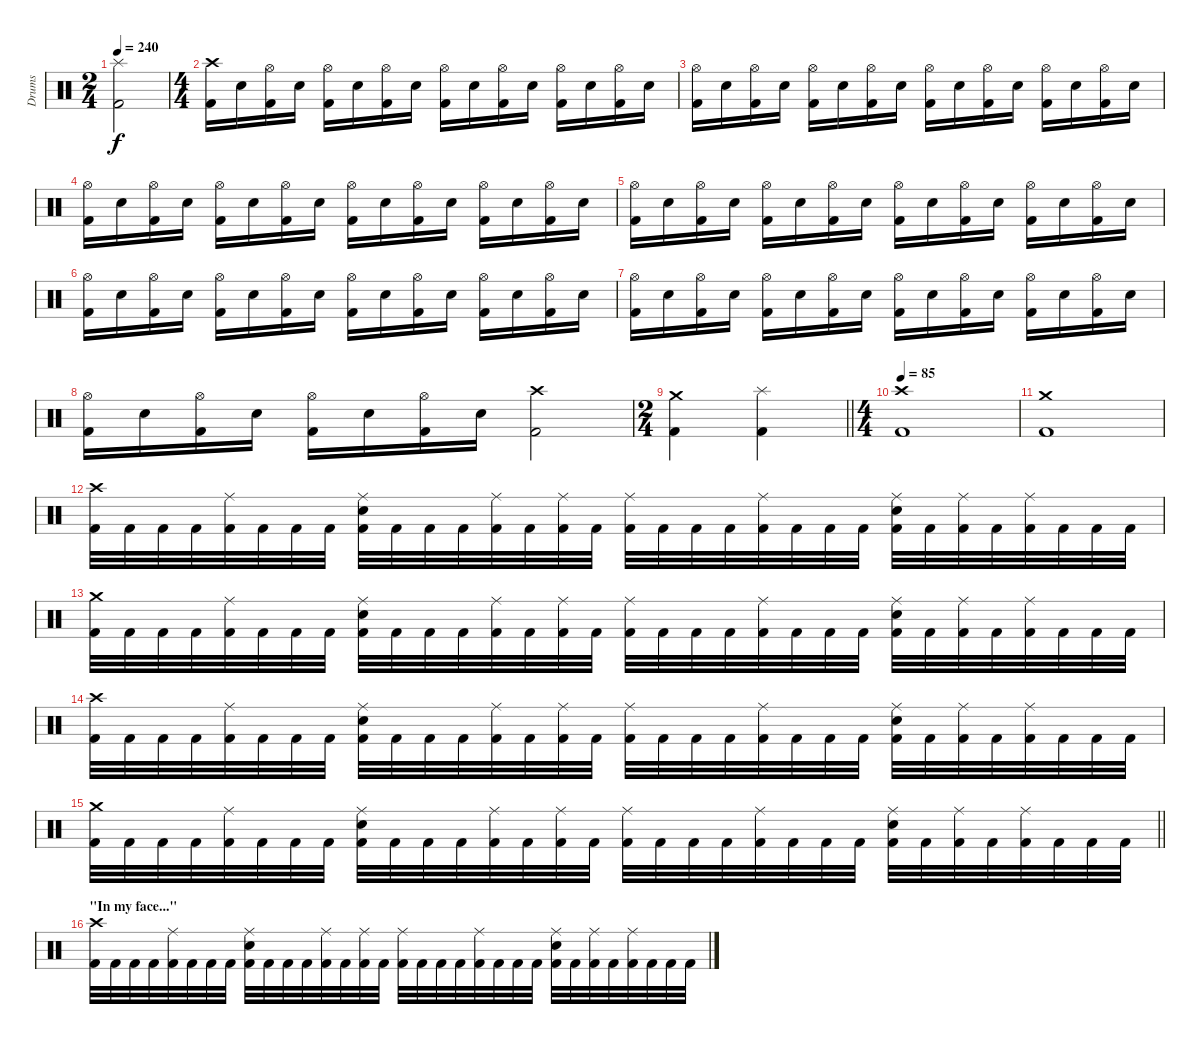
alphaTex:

\track ("Drums" "Drums") {instrument percussion}
\staff {score}
\articulation defaults
\ts (2 4)
\tempo 240
\clef neutral
\ks c
("Splash (hit)" "Kick (hit) 2").2{dy f} |
\ts (4 4)
("Crash high (hit)" "Kick (hit) 2").16 "Electric Snare (hit)".16 ("Hi-Hat (open)" "Kick (hit) 2").16 "Electric Snare (hit)".16 ("Hi-Hat (open)" "Kick (hit) 2").16 "Electric Snare (hit)".16 ("Hi-Hat (open)" "Kick (hit) 2").16 "Electric Snare (hit)".16 ("Hi-Hat (open)" "Kick (hit) 2").16 "Electric Snare (hit)".16 ("Hi-Hat (open)" "Kick (hit) 2").16 "Electric Snare (hit)".16 ("Hi-Hat (open)" "Kick (hit) 2").16 "Electric Snare (hit)".16 ("Hi-Hat (open)" "Kick (hit) 2").16 "Electric Snare (hit)".16 |
("Hi-Hat (open)" "Kick (hit) 2").16 "Electric Snare (hit)".16 ("Hi-Hat (open)" "Kick (hit) 2").16 "Electric Snare (hit)".16 ("Hi-Hat (open)" "Kick (hit) 2").16 "Electric Snare (hit)".16 ("Hi-Hat (open)" "Kick (hit) 2").16 "Electric Snare (hit)".16 ("Hi-Hat (open)" "Kick (hit) 2").16 "Electric Snare (hit)".16 ("Hi-Hat (open)" "Kick (hit) 2").16 "Electric Snare (hit)".16 ("Hi-Hat (open)" "Kick (hit) 2").16 "Electric Snare (hit)".16 ("Hi-Hat (open)" "Kick (hit) 2").16 "Electric Snare (hit)".16 |
("Hi-Hat (open)" "Kick (hit) 2").16 "Electric Snare (hit)".16 ("Hi-Hat (open)" "Kick (hit) 2").16 "Electric Snare (hit)".16 ("Hi-Hat (open)" "Kick (hit) 2").16 "Electric Snare (hit)".16 ("Hi-Hat (open)" "Kick (hit) 2").16 "Electric Snare (hit)".16 ("Hi-Hat (open)" "Kick (hit) 2").16 "Electric Snare (hit)".16 ("Hi-Hat (open)" "Kick (hit) 2").16 "Electric Snare (hit)".16 ("Hi-Hat (open)" "Kick (hit) 2").16 "Electric Snare (hit)".16 ("Hi-Hat (open)" "Kick (hit) 2").16 "Electric Snare (hit)".16 |
("Hi-Hat (open)" "Kick (hit) 2").16 "Electric Snare (hit)".16 ("Hi-Hat (open)" "Kick (hit) 2").16 "Electric Snare (hit)".16 ("Hi-Hat (open)" "Kick (hit) 2").16 "Electric Snare (hit)".16 ("Hi-Hat (open)" "Kick (hit) 2").16 "Electric Snare (hit)".16 ("Hi-Hat (open)" "Kick (hit) 2").16 "Electric Snare (hit)".16 ("Hi-Hat (open)" "Kick (hit) 2").16 "Electric Snare (hit)".16 ("Hi-Hat (open)" "Kick (hit) 2").16 "Electric Snare (hit)".16 ("Hi-Hat (open)" "Kick (hit) 2").16 "Electric Snare (hit)".16 |
("Hi-Hat (open)" "Kick (hit) 2").16 "Electric Snare (hit)".16 ("Hi-Hat (open)" "Kick (hit) 2").16 "Electric Snare (hit)".16 ("Hi-Hat (open)" "Kick (hit) 2").16 "Electric Snare (hit)".16 ("Hi-Hat (open)" "Kick (hit) 2").16 "Electric Snare (hit)".16 ("Hi-Hat (open)" "Kick (hit) 2").16 "Electric Snare (hit)".16 ("Hi-Hat (open)" "Kick (hit) 2").16 "Electric Snare (hit)".16 ("Hi-Hat (open)" "Kick (hit) 2").16 "Electric Snare (hit)".16 ("Hi-Hat (open)" "Kick (hit) 2").16 "Electric Snare (hit)".16 |
("Hi-Hat (open)" "Kick (hit) 2").16 "Electric Snare (hit)".16 ("Hi-Hat (open)" "Kick (hit) 2").16 "Electric Snare (hit)".16 ("Hi-Hat (open)" "Kick (hit) 2").16 "Electric Snare (hit)".16 ("Hi-Hat (open)" "Kick (hit) 2").16 "Electric Snare (hit)".16 ("Hi-Hat (open)" "Kick (hit) 2").16 "Electric Snare (hit)".16 ("Hi-Hat (open)" "Kick (hit) 2").16 "Electric Snare (hit)".16 ("Hi-Hat (open)" "Kick (hit) 2").16 "Electric Snare (hit)".16 ("Hi-Hat (open)" "Kick (hit) 2").16 "Electric Snare (hit)".16 |
("Hi-Hat (open)" "Kick (hit) 2").16 "Electric Snare (hit)".16 ("Hi-Hat (open)" "Kick (hit) 2").16 "Electric Snare (hit)".16 ("Hi-Hat (open)" "Kick (hit) 2").16 "Electric Snare (hit)".16 ("Hi-Hat (open)" "Kick (hit) 2").16 "Electric Snare (hit)".16 ("Crash high (hit)" "Kick (hit) 2").2 |
\ts (2 4)
\barLineRight lightlight
("Crash medium (hit)" "Kick (hit) 2").4 ("Splash (hit)" "Kick (hit) 2").4 |
\ts (4 4)
\section ("" "")
\tempo 85
("Crash high (hit)" "Kick (hit) 2").1 |
("Crash medium (hit)" "Kick (hit) 2").1 |
("Crash high (hit)" "Kick (hit) 2").32 "Kick (hit) 2".32 "Kick (hit) 2".32 "Kick (hit) 2".32 ("Ride (middle)" "Kick (hit) 2").32 "Kick (hit) 2".32 "Kick (hit) 2".32 "Kick (hit) 2".32 ("Ride (middle)" "Electric Snare (hit)" "Kick (hit) 2").32 "Kick (hit) 2".32 "Kick (hit) 2".32 "Kick (hit) 2".32 ("Ride (middle)" "Kick (hit) 2").32 "Kick (hit) 2".32 ("Ride (middle)" "Kick (hit) 2").32 "Kick (hit) 2".32 ("Ride (middle)" "Kick (hit) 2").32 "Kick (hit) 2".32 "Kick (hit) 2".32 "Kick (hit) 2".32 ("Ride (middle)" "Kick (hit) 2").32 "Kick (hit) 2".32 "Kick (hit) 2".32 "Kick (hit) 2".32 ("Ride (middle)" "Electric Snare (hit)" "Kick (hit) 2").32 "Kick (hit) 2".32 ("Ride (middle)" "Kick (hit) 2").32 "Kick (hit) 2".32 ("Ride (middle)" "Kick (hit) 2").32 "Kick (hit) 2".32 "Kick (hit) 2".32 "Kick (hit) 2".32 |
("Crash medium (hit)" "Kick (hit) 2").32 "Kick (hit) 2".32 "Kick (hit) 2".32 "Kick (hit) 2".32 ("Ride (middle)" "Kick (hit) 2").32 "Kick (hit) 2".32 "Kick (hit) 2".32 "Kick (hit) 2".32 ("Ride (middle)" "Electric Snare (hit)" "Kick (hit) 2").32 "Kick (hit) 2".32 "Kick (hit) 2".32 "Kick (hit) 2".32 ("Ride (middle)" "Kick (hit) 2").32 "Kick (hit) 2".32 ("Ride (middle)" "Kick (hit) 2").32 "Kick (hit) 2".32 ("Ride (middle)" "Kick (hit) 2").32 "Kick (hit) 2".32 "Kick (hit) 2".32 "Kick (hit) 2".32 ("Ride (middle)" "Kick (hit) 2").32 "Kick (hit) 2".32 "Kick (hit) 2".32 "Kick (hit) 2".32 ("Ride (middle)" "Electric Snare (hit)" "Kick (hit) 2").32 "Kick (hit) 2".32 ("Ride (middle)" "Kick (hit) 2").32 "Kick (hit) 2".32 ("Ride (middle)" "Kick (hit) 2").32 "Kick (hit) 2".32 "Kick (hit) 2".32 "Kick (hit) 2".32 |
("Crash high (hit)" "Kick (hit) 2").32 "Kick (hit) 2".32 "Kick (hit) 2".32 "Kick (hit) 2".32 ("Ride (middle)" "Kick (hit) 2").32 "Kick (hit) 2".32 "Kick (hit) 2".32 "Kick (hit) 2".32 ("Ride (middle)" "Electric Snare (hit)" "Kick (hit) 2").32 "Kick (hit) 2".32 "Kick (hit) 2".32 "Kick (hit) 2".32 ("Ride (middle)" "Kick (hit) 2").32 "Kick (hit) 2".32 ("Ride (middle)" "Kick (hit) 2").32 "Kick (hit) 2".32 ("Ride (middle)" "Kick (hit) 2").32 "Kick (hit) 2".32 "Kick (hit) 2".32 "Kick (hit) 2".32 ("Ride (middle)" "Kick (hit) 2").32 "Kick (hit) 2".32 "Kick (hit) 2".32 "Kick (hit) 2".32 ("Ride (middle)" "Electric Snare (hit)" "Kick (hit) 2").32 "Kick (hit) 2".32 ("Ride (middle)" "Kick (hit) 2").32 "Kick (hit) 2".32 ("Ride (middle)" "Kick (hit) 2").32 "Kick (hit) 2".32 "Kick (hit) 2".32 "Kick (hit) 2".32 |
\barLineRight lightlight
("Crash medium (hit)" "Kick (hit) 2").32 "Kick (hit) 2".32 "Kick (hit) 2".32 "Kick (hit) 2".32 ("Ride (middle)" "Kick (hit) 2").32 "Kick (hit) 2".32 "Kick (hit) 2".32 "Kick (hit) 2".32 ("Ride (middle)" "Electric Snare (hit)" "Kick (hit) 2").32 "Kick (hit) 2".32 "Kick (hit) 2".32 "Kick (hit) 2".32 ("Ride (middle)" "Kick (hit) 2").32 "Kick (hit) 2".32 ("Ride (middle)" "Kick (hit) 2").32 "Kick (hit) 2".32 ("Ride (middle)" "Kick (hit) 2").32 "Kick (hit) 2".32 "Kick (hit) 2".32 "Kick (hit) 2".32 ("Ride (middle)" "Kick (hit) 2").32 "Kick (hit) 2".32 "Kick (hit) 2".32 "Kick (hit) 2".32 ("Ride (middle)" "Electric Snare (hit)" "Kick (hit) 2").32 "Kick (hit) 2".32 ("Ride (middle)" "Kick (hit) 2").32 "Kick (hit) 2".32 ("Ride (middle)" "Kick (hit) 2").32 "Kick (hit) 2".32 "Kick (hit) 2".32 "Kick (hit) 2".32 |
\section ("" "\"In my face...\"")
("Crash high (hit)" "Kick (hit) 2").32 "Kick (hit) 2".32 "Kick (hit) 2".32 "Kick (hit) 2".32 ("Ride (middle)" "Kick (hit) 2").32 "Kick (hit) 2".32 "Kick (hit) 2".32 "Kick (hit) 2".32 ("Ride (middle)" "Electric Snare (hit)" "Kick (hit) 2").32 "Kick (hit) 2".32 "Kick (hit) 2".32 "Kick (hit) 2".32 ("Ride (middle)" "Kick (hit) 2").32 "Kick (hit) 2".32 ("Ride (middle)" "Kick (hit) 2").32 "Kick (hit) 2".32 ("Ride (middle)" "Kick (hit) 2").32 "Kick (hit) 2".32 "Kick (hit) 2".32 "Kick (hit) 2".32 ("Ride (middle)" "Kick (hit) 2").32 "Kick (hit) 2".32 "Kick (hit) 2".32 "Kick (hit) 2".32 ("Ride (middle)" "Electric Snare (hit)" "Kick (hit) 2").32 "Kick (hit) 2".32 ("Ride (middle)" "Kick (hit) 2").32 "Kick (hit) 2".32 ("Ride (middle)" "Kick (hit) 2").32 "Kick (hit) 2".32 "Kick (hit) 2".32 "Kick (hit) 2".32
